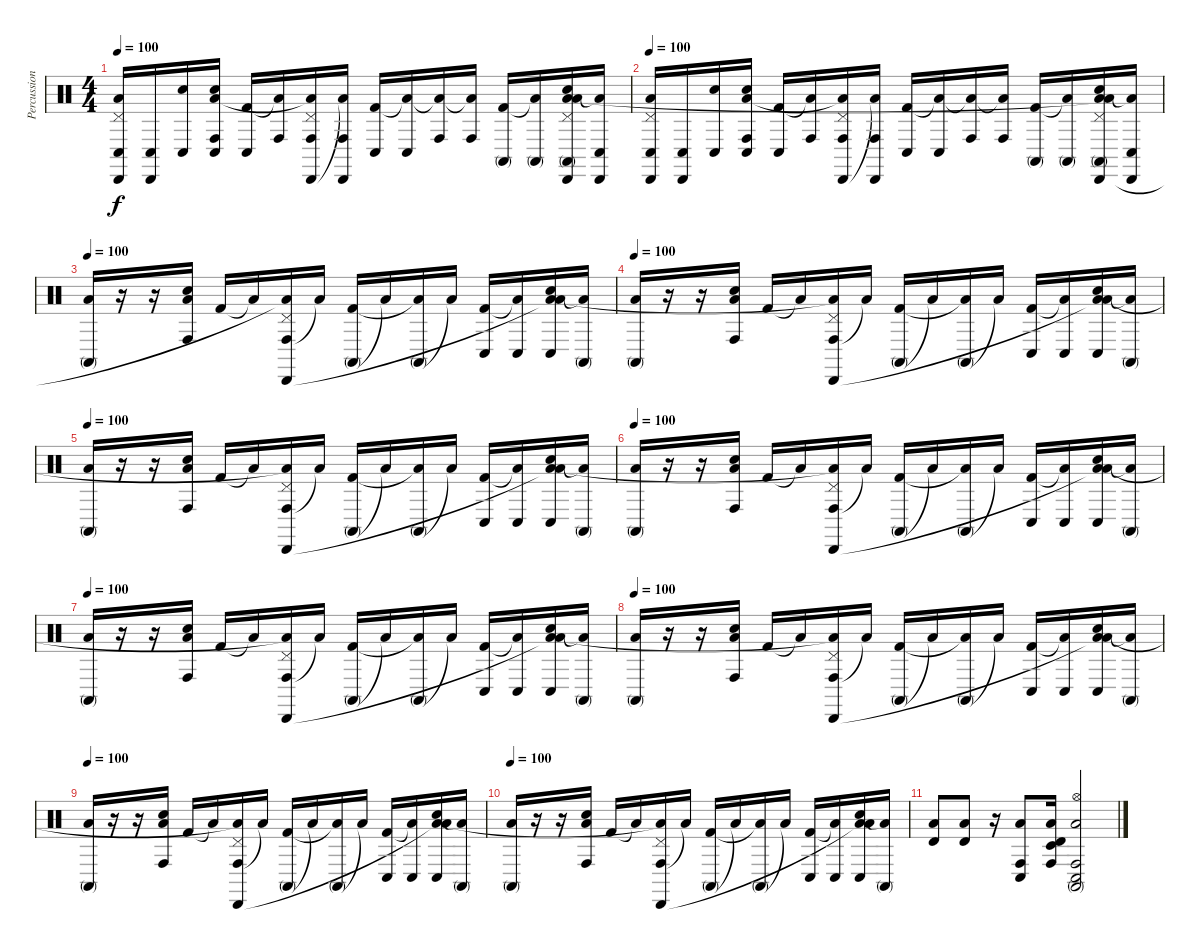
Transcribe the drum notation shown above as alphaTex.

\track ("Percussion" "Percussion") {instrument percussion}
\staff {score}
\articulation defaults
\ts (4 4)
\tempo 100
\clef neutral
\ks c
("Pedal Hi-Hat (hit)" "Conga low (hit)" "Cabasa (hit)" "Low Floor Tom (hit)").16{dy f} ("Conga low (hit)" "Cabasa (hit)").16 ("Conga low (hit)" "Hand Clap (hit)").16 ("Conga low (hit)" "Conga high (hit)" "Hand Clap (hit)" "Low Tom (hit)").16 ("Conga low (hit)" "Kick (hit) 2").16 ("Conga high (hit)" "Low Tom (hit)"{t}).16 ("Pedal Hi-Hat (hit)" "Conga high (hit)" "Cabasa (hit)" "Low Tom (hit)"{t}).16 ("Conga high (hit)" "Cabasa (hit)" "Low Tom (hit)"{t}).16 ("Conga low (hit)" "Kick (hit) 2").16 ("Conga low (hit)" "Low Tom (hit)"{t}).16 ("Conga high (hit)" "Low Tom (hit)"{t}).16 ("Conga high (hit)" "Low Tom (hit)"{t}).16 ("Conga high (mute)" "Kick (hit) 2").16 ("Conga high (mute)" "Low Tom (hit)"{t}).16 ("Pedal Hi-Hat (hit)" "Conga high (mute)" "Hand Clap (hit)" "Cabasa (hit)" "Low Tom (hit)"{t} "Low Floor Tom (hit)").16 ("Conga low (hit)" "Cabasa (hit)" "Low Tom (hit)"{t}).16 |
\tempo 100
("Pedal Hi-Hat (hit)" "Conga low (hit)" "Cabasa (hit)" "Low Floor Tom (hit)").16 ("Conga low (hit)" "Cabasa (hit)").16 ("Conga low (hit)" "Hand Clap (hit)").16 ("Conga low (hit)" "Conga high (hit)" "Hand Clap (hit)" "Low Tom (hit)").16 ("Conga low (hit)" "Kick (hit) 2").16 ("Conga high (hit)" "Low Tom (hit)"{t}).16 ("Pedal Hi-Hat (hit)" "Conga high (hit)" "Cabasa (hit)" "Low Tom (hit)"{t}).16 ("Conga high (hit)" "Cabasa (hit)" "Low Tom (hit)"{t}).16 ("Conga low (hit)" "Kick (hit) 2").16 ("Conga low (hit)" "Low Tom (hit)"{t}).16 ("Conga high (hit)" "Low Tom (hit)"{t}).16 ("Conga high (hit)" "Low Tom (hit)"{t}).16 ("Conga high (mute)" "Kick (hit) 2").16 ("Conga high (mute)" "Low Tom (hit)"{t}).16 ("Pedal Hi-Hat (hit)" "Conga high (mute)" "Hand Clap (hit)" "Cabasa (hit)" "Low Tom (hit)"{t} "Low Floor Tom (hit)").16 ("Conga low (hit)" "Cabasa (hit)" "Low Tom (hit)"{t}).16 |
\tempo 100
("Conga high (mute)" "Low Floor Tom (hit)").16 r.16 r.16 ("Conga high (hit)" "Hand Clap (hit)" "Low Tom (hit)").16 "Kick (hit) 2".16 "Low Tom (hit)"{t}.16 ("Conga high (hit)" "Pedal Hi-Hat (hit)" "Cabasa (hit)" "Low Tom (hit)"{t}).16 "Low Tom (hit)"{t}.16 ("Conga high (mute)" "Kick (hit) 2").16 "Low Tom (hit)"{t}.16 ("Conga high (mute)" "Low Tom (hit)"{t}).16 "Low Tom (hit)"{t}.16 ("Conga low (hit)" "Kick (hit) 2").16 ("Conga low (hit)" "Low Tom (hit)"{t}).16 ("Conga low (hit)" "Hand Clap (hit)" "Low Tom (hit)"{t} "Low Floor Tom (hit)").16 ("Conga high (mute)" "Low Tom (hit)"{t}).16 |
\tempo 100
("Conga high (mute)" "Low Floor Tom (hit)").16 r.16 r.16 ("Conga high (hit)" "Hand Clap (hit)" "Low Tom (hit)").16 "Kick (hit) 2".16 "Low Tom (hit)"{t}.16 ("Conga high (hit)" "Pedal Hi-Hat (hit)" "Cabasa (hit)" "Low Tom (hit)"{t}).16 "Low Tom (hit)"{t}.16 ("Conga high (mute)" "Kick (hit) 2").16 "Low Tom (hit)"{t}.16 ("Conga high (mute)" "Low Tom (hit)"{t}).16 "Low Tom (hit)"{t}.16 ("Conga low (hit)" "Kick (hit) 2").16 ("Conga low (hit)" "Low Tom (hit)"{t}).16 ("Conga low (hit)" "Hand Clap (hit)" "Low Tom (hit)"{t} "Low Floor Tom (hit)").16 ("Conga high (mute)" "Low Tom (hit)"{t}).16 |
\tempo 100
("Conga high (mute)" "Low Floor Tom (hit)").16 r.16 r.16 ("Conga high (hit)" "Hand Clap (hit)" "Low Tom (hit)").16 "Kick (hit) 2".16 "Low Tom (hit)"{t}.16 ("Conga high (hit)" "Pedal Hi-Hat (hit)" "Cabasa (hit)" "Low Tom (hit)"{t}).16 "Low Tom (hit)"{t}.16 ("Conga high (mute)" "Kick (hit) 2").16 "Low Tom (hit)"{t}.16 ("Conga high (mute)" "Low Tom (hit)"{t}).16 "Low Tom (hit)"{t}.16 ("Conga low (hit)" "Kick (hit) 2").16 ("Conga low (hit)" "Low Tom (hit)"{t}).16 ("Conga low (hit)" "Hand Clap (hit)" "Low Tom (hit)"{t} "Low Floor Tom (hit)").16 ("Conga high (mute)" "Low Tom (hit)"{t}).16 |
\tempo 100
("Conga high (mute)" "Low Floor Tom (hit)").16 r.16 r.16 ("Conga high (hit)" "Hand Clap (hit)" "Low Tom (hit)").16 "Kick (hit) 2".16 "Low Tom (hit)"{t}.16 ("Conga high (hit)" "Pedal Hi-Hat (hit)" "Cabasa (hit)" "Low Tom (hit)"{t}).16 "Low Tom (hit)"{t}.16 ("Conga high (mute)" "Kick (hit) 2").16 "Low Tom (hit)"{t}.16 ("Conga high (mute)" "Low Tom (hit)"{t}).16 "Low Tom (hit)"{t}.16 ("Conga low (hit)" "Kick (hit) 2").16 ("Conga low (hit)" "Low Tom (hit)"{t}).16 ("Conga low (hit)" "Hand Clap (hit)" "Low Tom (hit)"{t} "Low Floor Tom (hit)").16 ("Conga high (mute)" "Low Tom (hit)"{t}).16 |
\tempo 100
("Conga high (mute)" "Low Floor Tom (hit)").16 r.16 r.16 ("Conga high (hit)" "Hand Clap (hit)" "Low Tom (hit)").16 "Kick (hit) 2".16 "Low Tom (hit)"{t}.16 ("Conga high (hit)" "Pedal Hi-Hat (hit)" "Cabasa (hit)" "Low Tom (hit)"{t}).16 "Low Tom (hit)"{t}.16 ("Conga high (mute)" "Kick (hit) 2").16 "Low Tom (hit)"{t}.16 ("Conga high (mute)" "Low Tom (hit)"{t}).16 "Low Tom (hit)"{t}.16 ("Conga low (hit)" "Kick (hit) 2").16 ("Conga low (hit)" "Low Tom (hit)"{t}).16 ("Conga low (hit)" "Hand Clap (hit)" "Low Tom (hit)"{t} "Low Floor Tom (hit)").16 ("Conga high (mute)" "Low Tom (hit)"{t}).16 |
\tempo 100
("Conga high (mute)" "Low Floor Tom (hit)").16 r.16 r.16 ("Conga high (hit)" "Hand Clap (hit)" "Low Tom (hit)").16 "Kick (hit) 2".16 "Low Tom (hit)"{t}.16 ("Conga high (hit)" "Pedal Hi-Hat (hit)" "Cabasa (hit)" "Low Tom (hit)"{t}).16 "Low Tom (hit)"{t}.16 ("Conga high (mute)" "Kick (hit) 2").16 "Low Tom (hit)"{t}.16 ("Conga high (mute)" "Low Tom (hit)"{t}).16 "Low Tom (hit)"{t}.16 ("Conga low (hit)" "Kick (hit) 2").16 ("Conga low (hit)" "Low Tom (hit)"{t}).16 ("Conga low (hit)" "Hand Clap (hit)" "Low Tom (hit)"{t} "Low Floor Tom (hit)").16 ("Conga high (mute)" "Low Tom (hit)"{t}).16 |
\tempo 100
("Conga high (mute)" "Low Floor Tom (hit)").16 r.16 r.16 ("Conga high (hit)" "Hand Clap (hit)" "Low Tom (hit)").16 "Kick (hit) 2".16 "Low Tom (hit)"{t}.16 ("Conga high (hit)" "Pedal Hi-Hat (hit)" "Cabasa (hit)" "Low Tom (hit)"{t}).16 "Low Tom (hit)"{t}.16 ("Conga high (mute)" "Kick (hit) 2").16 "Low Tom (hit)"{t}.16 ("Conga high (mute)" "Low Tom (hit)"{t}).16 "Low Tom (hit)"{t}.16 ("Conga low (hit)" "Kick (hit) 2").16 ("Conga low (hit)" "Low Tom (hit)"{t}).16 ("Conga low (hit)" "Hand Clap (hit)" "Low Tom (hit)"{t} "Low Floor Tom (hit)").16 ("Conga high (mute)" "Low Tom (hit)"{t}).16 |
\tempo 100
("Conga high (mute)" "Low Floor Tom (hit)").16 r.16 r.16 ("Conga high (hit)" "Hand Clap (hit)" "Low Tom (hit)").16 "Kick (hit) 2".16 "Low Tom (hit)"{t}.16 ("Conga high (hit)" "Pedal Hi-Hat (hit)" "Cabasa (hit)" "Low Tom (hit)"{t}).16 "Low Tom (hit)"{t}.16 ("Conga high (mute)" "Kick (hit) 2").16 "Low Tom (hit)"{t}.16 ("Conga high (mute)" "Low Tom (hit)"{t}).16 "Low Tom (hit)"{t}.16 ("Conga low (hit)" "Kick (hit) 2").16 ("Conga low (hit)" "Low Tom (hit)"{t}).16 ("Conga low (hit)" "Hand Clap (hit)" "Low Tom (hit)"{t} "Low Floor Tom (hit)").16 ("Conga high (mute)" "Low Tom (hit)"{t}).16 |
("Timbale high (hit)" "Low Floor Tom (hit)").8 ("Timbale high (hit)" "Low Floor Tom (hit)").8 r.16 ("Conga low (hit)" "Conga high (hit)" "Low Floor Tom (hit)").8 ("Timbale high (hit)" "Timbale low (hit)" "Conga high (hit)" "Low Floor Tom (hit)").16 ("Hi-Hat (open)" "Low Floor Tom (hit)" "Conga low (hit)" "Conga high (hit)" "Conga high (mute)").2
